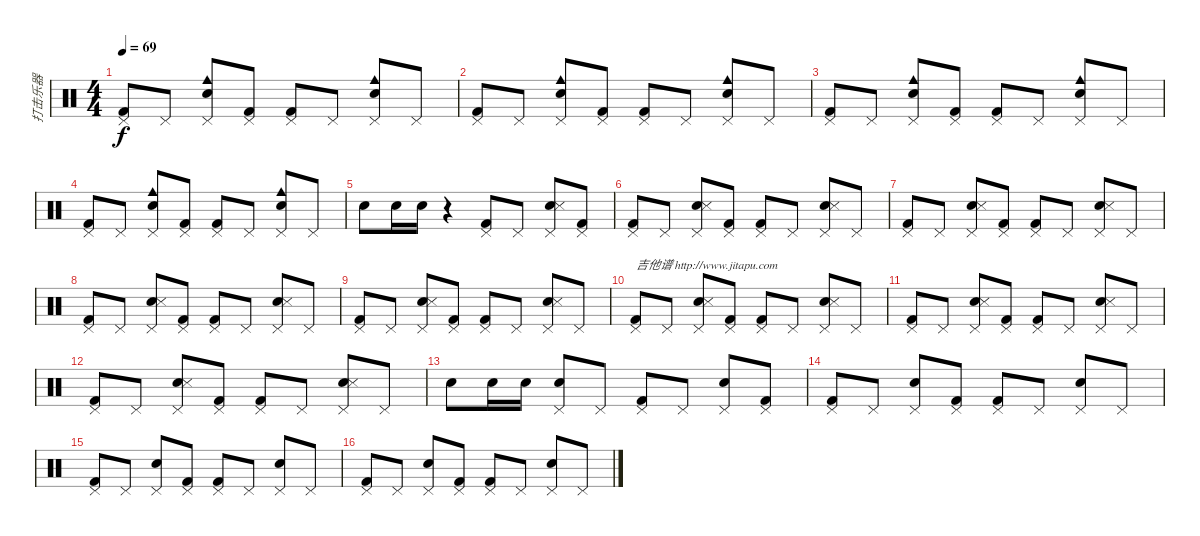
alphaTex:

\track ("打击乐器" "打击乐器") {instrument percussion}
\staff {score}
\articulation defaults
\ts (4 4)
\tempo 69
\clef neutral
\ks c
("Kick (hit) 2" "Pedal Hi-Hat (hit)").8{dy f} "Pedal Hi-Hat (hit)".8 ("Cowbell medium (hit)" "Electric Snare (hit)" "Pedal Hi-Hat (hit)").8 ("Kick (hit) 2" "Pedal Hi-Hat (hit)").8 ("Kick (hit) 2" "Pedal Hi-Hat (hit)").8 "Pedal Hi-Hat (hit)".8 ("Cowbell medium (hit)" "Electric Snare (hit)" "Pedal Hi-Hat (hit)").8 "Pedal Hi-Hat (hit)".8 |
("Kick (hit) 2" "Pedal Hi-Hat (hit)").8 "Pedal Hi-Hat (hit)".8 ("Cowbell medium (hit)" "Electric Snare (hit)" "Pedal Hi-Hat (hit)").8 ("Kick (hit) 2" "Pedal Hi-Hat (hit)").8 ("Kick (hit) 2" "Pedal Hi-Hat (hit)").8 "Pedal Hi-Hat (hit)".8 ("Cowbell medium (hit)" "Electric Snare (hit)" "Pedal Hi-Hat (hit)").8 "Pedal Hi-Hat (hit)".8 |
("Kick (hit) 2" "Pedal Hi-Hat (hit)").8 "Pedal Hi-Hat (hit)".8 ("Cowbell medium (hit)" "Electric Snare (hit)" "Pedal Hi-Hat (hit)").8 ("Kick (hit) 2" "Pedal Hi-Hat (hit)").8 ("Kick (hit) 2" "Pedal Hi-Hat (hit)").8 "Pedal Hi-Hat (hit)".8 ("Cowbell medium (hit)" "Electric Snare (hit)" "Pedal Hi-Hat (hit)").8 "Pedal Hi-Hat (hit)".8 |
("Kick (hit) 2" "Pedal Hi-Hat (hit)").8 "Pedal Hi-Hat (hit)".8 ("Cowbell medium (hit)" "Electric Snare (hit)" "Pedal Hi-Hat (hit)").8 ("Kick (hit) 2" "Pedal Hi-Hat (hit)").8 ("Kick (hit) 2" "Pedal Hi-Hat (hit)").8 "Pedal Hi-Hat (hit)".8 ("Cowbell medium (hit)" "Electric Snare (hit)" "Pedal Hi-Hat (hit)").8 "Pedal Hi-Hat (hit)".8 |
"Electric Snare (hit)".8 "Electric Snare (hit)".16 "Electric Snare (hit)".16 r.4 ("Kick (hit) 2" "Pedal Hi-Hat (hit)").8 "Pedal Hi-Hat (hit)".8 ("Hand Clap (hit)" "Metronome (hit)" "Pedal Hi-Hat (hit)").8 ("Kick (hit) 2" "Pedal Hi-Hat (hit)").8 |
("Kick (hit) 2" "Pedal Hi-Hat (hit)").8 "Pedal Hi-Hat (hit)".8 ("Hand Clap (hit)" "Metronome (hit)" "Pedal Hi-Hat (hit)").8 ("Kick (hit) 2" "Pedal Hi-Hat (hit)").8 ("Kick (hit) 2" "Pedal Hi-Hat (hit)").8 "Pedal Hi-Hat (hit)".8 ("Hand Clap (hit)" "Metronome (hit)" "Pedal Hi-Hat (hit)").8 "Pedal Hi-Hat (hit)".8 |
("Kick (hit) 2" "Pedal Hi-Hat (hit)").8 "Pedal Hi-Hat (hit)".8 ("Hand Clap (hit)" "Metronome (hit)" "Pedal Hi-Hat (hit)").8 ("Kick (hit) 2" "Pedal Hi-Hat (hit)").8 ("Kick (hit) 2" "Pedal Hi-Hat (hit)").8 "Pedal Hi-Hat (hit)".8 ("Hand Clap (hit)" "Metronome (hit)" "Pedal Hi-Hat (hit)").8 "Pedal Hi-Hat (hit)".8 |
("Kick (hit) 2" "Pedal Hi-Hat (hit)").8 "Pedal Hi-Hat (hit)".8 ("Hand Clap (hit)" "Metronome (hit)" "Pedal Hi-Hat (hit)").8 ("Kick (hit) 2" "Pedal Hi-Hat (hit)").8 ("Kick (hit) 2" "Pedal Hi-Hat (hit)").8 "Pedal Hi-Hat (hit)".8 ("Hand Clap (hit)" "Metronome (hit)" "Pedal Hi-Hat (hit)").8 "Pedal Hi-Hat (hit)".8 |
("Kick (hit) 2" "Pedal Hi-Hat (hit)").8 "Pedal Hi-Hat (hit)".8 ("Hand Clap (hit)" "Metronome (hit)" "Pedal Hi-Hat (hit)").8 ("Kick (hit) 2" "Pedal Hi-Hat (hit)").8 ("Kick (hit) 2" "Pedal Hi-Hat (hit)").8 "Pedal Hi-Hat (hit)".8 ("Hand Clap (hit)" "Metronome (hit)" "Pedal Hi-Hat (hit)").8 "Pedal Hi-Hat (hit)".8 |
("Kick (hit) 2" "Pedal Hi-Hat (hit)").8{txt "吉他谱 http://www.jitapu.com"} "Pedal Hi-Hat (hit)".8 ("Hand Clap (hit)" "Metronome (hit)" "Pedal Hi-Hat (hit)").8 ("Kick (hit) 2" "Pedal Hi-Hat (hit)").8 ("Kick (hit) 2" "Pedal Hi-Hat (hit)").8 "Pedal Hi-Hat (hit)".8 ("Hand Clap (hit)" "Metronome (hit)" "Pedal Hi-Hat (hit)").8 "Pedal Hi-Hat (hit)".8 |
("Kick (hit) 2" "Pedal Hi-Hat (hit)").8 "Pedal Hi-Hat (hit)".8 ("Hand Clap (hit)" "Metronome (hit)" "Pedal Hi-Hat (hit)").8 ("Kick (hit) 2" "Pedal Hi-Hat (hit)").8 ("Kick (hit) 2" "Pedal Hi-Hat (hit)").8 "Pedal Hi-Hat (hit)".8 ("Hand Clap (hit)" "Metronome (hit)" "Pedal Hi-Hat (hit)").8 "Pedal Hi-Hat (hit)".8 |
("Kick (hit) 2" "Pedal Hi-Hat (hit)").8 "Pedal Hi-Hat (hit)".8 ("Hand Clap (hit)" "Metronome (hit)" "Pedal Hi-Hat (hit)").8 ("Kick (hit) 2" "Pedal Hi-Hat (hit)").8 ("Kick (hit) 2" "Pedal Hi-Hat (hit)").8 "Pedal Hi-Hat (hit)".8 ("Hand Clap (hit)" "Metronome (hit)" "Pedal Hi-Hat (hit)").8 "Pedal Hi-Hat (hit)".8 |
"Electric Snare (hit)".8 "Electric Snare (hit)".16 "Electric Snare (hit)".16 ("Electric Snare (hit)" "Pedal Hi-Hat (hit)").8 "Pedal Hi-Hat (hit)".8 ("Kick (hit) 2" "Pedal Hi-Hat (hit)").8 "Pedal Hi-Hat (hit)".8 ("Electric Snare (hit)" "Pedal Hi-Hat (hit)").8 ("Kick (hit) 2" "Pedal Hi-Hat (hit)").8 |
("Kick (hit) 2" "Pedal Hi-Hat (hit)").8 "Pedal Hi-Hat (hit)".8 ("Electric Snare (hit)" "Pedal Hi-Hat (hit)").8 ("Kick (hit) 2" "Pedal Hi-Hat (hit)").8 ("Kick (hit) 2" "Pedal Hi-Hat (hit)").8 "Pedal Hi-Hat (hit)".8 ("Electric Snare (hit)" "Pedal Hi-Hat (hit)").8 "Pedal Hi-Hat (hit)".8 |
("Kick (hit) 2" "Pedal Hi-Hat (hit)").8 "Pedal Hi-Hat (hit)".8 ("Electric Snare (hit)" "Pedal Hi-Hat (hit)").8 ("Kick (hit) 2" "Pedal Hi-Hat (hit)").8 ("Kick (hit) 2" "Pedal Hi-Hat (hit)").8 "Pedal Hi-Hat (hit)".8 ("Electric Snare (hit)" "Pedal Hi-Hat (hit)").8 "Pedal Hi-Hat (hit)".8 |
("Kick (hit) 2" "Pedal Hi-Hat (hit)").8 "Pedal Hi-Hat (hit)".8 ("Electric Snare (hit)" "Pedal Hi-Hat (hit)").8 ("Kick (hit) 2" "Pedal Hi-Hat (hit)").8 ("Kick (hit) 2" "Pedal Hi-Hat (hit)").8 "Pedal Hi-Hat (hit)".8 ("Electric Snare (hit)" "Pedal Hi-Hat (hit)").8 "Pedal Hi-Hat (hit)".8
